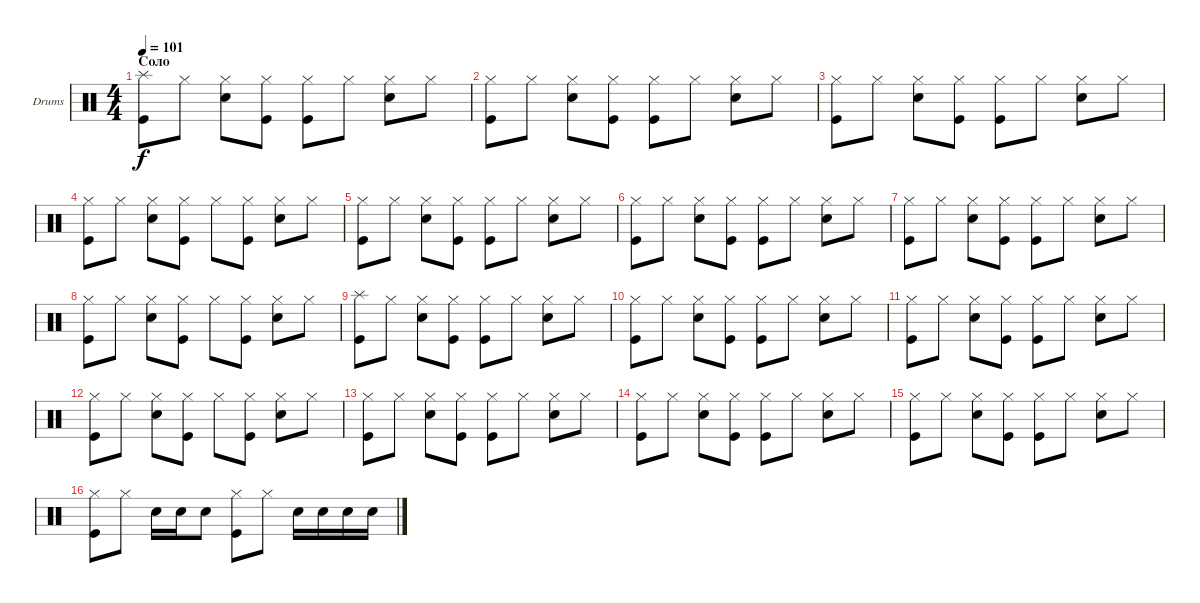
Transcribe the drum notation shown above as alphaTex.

\bracketExtendMode groupsimilarinstruments
\firstSystemTrackNameOrientation horizontal
\otherSystemsTrackNameOrientation horizontal
\track ("Г.Гурьянов (ударные)" "Drums") {instrument percussion}
\staff {score}
\articulation defaults
\ts (4 4)
\section ("" "Соло")
\tempo 101
\clef neutral
\ks c
("Splash (hit)" "Kick (hit)").8{dy f} "Hi-Hat (closed)".8 ("Hi-Hat (closed)" "Snare (hit) 2").8 ("Hi-Hat (closed)" "Kick (hit)").8 ("Hi-Hat (closed)" "Kick (hit)").8 "Hi-Hat (closed)".8 ("Hi-Hat (closed)" "Snare (hit) 2").8 "Hi-Hat (closed)".8 |
("Hi-Hat (closed)" "Kick (hit)").8 "Hi-Hat (closed)".8 ("Hi-Hat (closed)" "Snare (hit) 2").8 ("Hi-Hat (closed)" "Kick (hit)").8 ("Hi-Hat (closed)" "Kick (hit)").8 "Hi-Hat (closed)".8 ("Hi-Hat (closed)" "Snare (hit) 2").8 "Hi-Hat (closed)".8 |
("Hi-Hat (closed)" "Kick (hit)").8 "Hi-Hat (closed)".8 ("Hi-Hat (closed)" "Snare (hit) 2").8 ("Hi-Hat (closed)" "Kick (hit)").8 ("Hi-Hat (closed)" "Kick (hit)").8 "Hi-Hat (closed)".8 ("Hi-Hat (closed)" "Snare (hit) 2").8 "Hi-Hat (closed)".8 |
("Hi-Hat (closed)" "Kick (hit)").8 "Hi-Hat (closed)".8 ("Hi-Hat (closed)" "Snare (hit) 2").8 ("Hi-Hat (closed)" "Kick (hit)").8 "Hi-Hat (closed)".8 ("Hi-Hat (closed)" "Kick (hit)").8 ("Hi-Hat (closed)" "Snare (hit) 2").8 "Hi-Hat (closed)".8 |
("Hi-Hat (closed)" "Kick (hit)").8 "Hi-Hat (closed)".8 ("Hi-Hat (closed)" "Snare (hit) 2").8 ("Hi-Hat (closed)" "Kick (hit)").8 ("Hi-Hat (closed)" "Kick (hit)").8 "Hi-Hat (closed)".8 ("Hi-Hat (closed)" "Snare (hit) 2").8 "Hi-Hat (closed)".8 |
("Hi-Hat (closed)" "Kick (hit)").8 "Hi-Hat (closed)".8 ("Hi-Hat (closed)" "Snare (hit) 2").8 ("Hi-Hat (closed)" "Kick (hit)").8 ("Hi-Hat (closed)" "Kick (hit)").8 "Hi-Hat (closed)".8 ("Hi-Hat (closed)" "Snare (hit) 2").8 "Hi-Hat (closed)".8 |
("Hi-Hat (closed)" "Kick (hit)").8 "Hi-Hat (closed)".8 ("Hi-Hat (closed)" "Snare (hit) 2").8 ("Hi-Hat (closed)" "Kick (hit)").8 ("Hi-Hat (closed)" "Kick (hit)").8 "Hi-Hat (closed)".8 ("Hi-Hat (closed)" "Snare (hit) 2").8 "Hi-Hat (closed)".8 |
("Hi-Hat (closed)" "Kick (hit)").8 "Hi-Hat (closed)".8 ("Hi-Hat (closed)" "Snare (hit) 2").8 ("Hi-Hat (closed)" "Kick (hit)").8 "Hi-Hat (closed)".8 ("Hi-Hat (closed)" "Kick (hit)").8 ("Hi-Hat (closed)" "Snare (hit) 2").8 "Hi-Hat (closed)".8 |
("Splash (hit)" "Kick (hit)").8 "Hi-Hat (closed)".8 ("Hi-Hat (closed)" "Snare (hit) 2").8 ("Hi-Hat (closed)" "Kick (hit)").8 ("Hi-Hat (closed)" "Kick (hit)").8 "Hi-Hat (closed)".8 ("Hi-Hat (closed)" "Snare (hit) 2").8 "Hi-Hat (closed)".8 |
("Hi-Hat (closed)" "Kick (hit)").8 "Hi-Hat (closed)".8 ("Hi-Hat (closed)" "Snare (hit) 2").8 ("Hi-Hat (closed)" "Kick (hit)").8 ("Hi-Hat (closed)" "Kick (hit)").8 "Hi-Hat (closed)".8 ("Hi-Hat (closed)" "Snare (hit) 2").8 "Hi-Hat (closed)".8 |
("Hi-Hat (closed)" "Kick (hit)").8 "Hi-Hat (closed)".8 ("Hi-Hat (closed)" "Snare (hit) 2").8 ("Hi-Hat (closed)" "Kick (hit)").8 ("Hi-Hat (closed)" "Kick (hit)").8 "Hi-Hat (closed)".8 ("Hi-Hat (closed)" "Snare (hit) 2").8 "Hi-Hat (closed)".8 |
("Hi-Hat (closed)" "Kick (hit)").8 "Hi-Hat (closed)".8 ("Hi-Hat (closed)" "Snare (hit) 2").8 ("Hi-Hat (closed)" "Kick (hit)").8 "Hi-Hat (closed)".8 ("Hi-Hat (closed)" "Kick (hit)").8 ("Hi-Hat (closed)" "Snare (hit) 2").8 "Hi-Hat (closed)".8 |
("Hi-Hat (closed)" "Kick (hit)").8 "Hi-Hat (closed)".8 ("Hi-Hat (closed)" "Snare (hit) 2").8 ("Hi-Hat (closed)" "Kick (hit)").8 ("Hi-Hat (closed)" "Kick (hit)").8 "Hi-Hat (closed)".8 ("Hi-Hat (closed)" "Snare (hit) 2").8 "Hi-Hat (closed)".8 |
("Hi-Hat (closed)" "Kick (hit)").8 "Hi-Hat (closed)".8 ("Hi-Hat (closed)" "Snare (hit) 2").8 ("Hi-Hat (closed)" "Kick (hit)").8 ("Hi-Hat (closed)" "Kick (hit)").8 "Hi-Hat (closed)".8 ("Hi-Hat (closed)" "Snare (hit) 2").8 "Hi-Hat (closed)".8 |
("Hi-Hat (closed)" "Kick (hit)").8 "Hi-Hat (closed)".8 ("Hi-Hat (closed)" "Snare (hit) 2").8 ("Hi-Hat (closed)" "Kick (hit)").8 ("Hi-Hat (closed)" "Kick (hit)").8 "Hi-Hat (closed)".8 ("Hi-Hat (closed)" "Snare (hit) 2").8 "Hi-Hat (closed)".8 |
("Hi-Hat (closed)" "Kick (hit)").8 "Hi-Hat (closed)".8 "Snare (hit) 2".16 "Snare (hit) 2".16 "Snare (hit) 2".8 ("Hi-Hat (closed)" "Kick (hit)").8 "Hi-Hat (closed)".8 "Snare (hit) 2".16 "Snare (hit) 2".16 "Snare (hit) 2".16 "Snare (hit) 2".16
